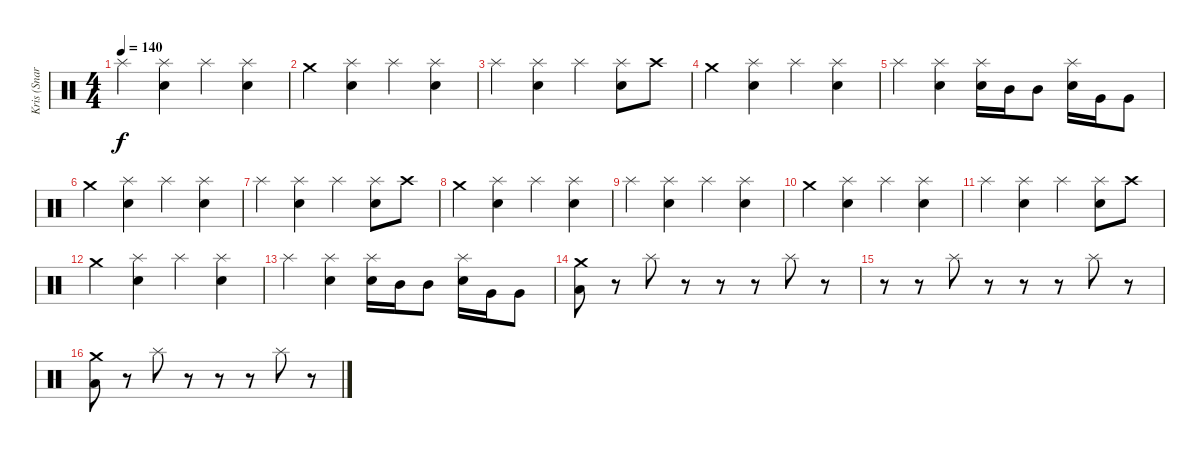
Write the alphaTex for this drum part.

\track ("Kris (Snares & Toms)" "Kris (Snar") {instrument percussion}
\staff {score}
\articulation defaults
\ts (4 4)
\tempo 140
\clef neutral
\ks c "Splash (hit)".4{dy f}
("Splash (hit)" "Electric Snare (hit)").4 "Splash (hit)".4 ("Splash (hit)" "Electric Snare (hit)").4 |
"Crash medium (hit)".4 ("Splash (hit)" "Electric Snare (hit)").4 "Splash (hit)".4 ("Splash (hit)" "Electric Snare (hit)").4 |
"Splash (hit)".4 ("Splash (hit)" "Electric Snare (hit)").4 "Splash (hit)".4 ("Splash (hit)" "Electric Snare (hit)").8 "Crash high (hit)".8 |
"Crash medium (hit)".4 ("Splash (hit)" "Electric Snare (hit)").4 "Splash (hit)".4 ("Splash (hit)" "Electric Snare (hit)").4 |
"Splash (hit)".4 ("Splash (hit)" "Electric Snare (hit)").4 ("Splash (hit)" "Electric Snare (hit)").16 "Mid Tom (hit)".16 "Mid Tom (hit)".8 ("Splash (hit)" "Electric Snare (hit)").16 "Very Low Tom (hit)".16 "Very Low Tom (hit)".8 |
"Crash medium (hit)".4 ("Splash (hit)" "Electric Snare (hit)").4 "Splash (hit)".4 ("Splash (hit)" "Electric Snare (hit)").4 |
"Splash (hit)".4 ("Splash (hit)" "Electric Snare (hit)").4 "Splash (hit)".4 ("Splash (hit)" "Electric Snare (hit)").8 "Crash high (hit)".8 |
"Crash medium (hit)".4 ("Splash (hit)" "Electric Snare (hit)").4 "Splash (hit)".4 ("Splash (hit)" "Electric Snare (hit)").4 |
"Splash (hit)".4 ("Splash (hit)" "Electric Snare (hit)").4 "Splash (hit)".4 ("Splash (hit)" "Electric Snare (hit)").4 |
"Crash medium (hit)".4 ("Splash (hit)" "Electric Snare (hit)").4 "Splash (hit)".4 ("Splash (hit)" "Electric Snare (hit)").4 |
"Splash (hit)".4 ("Splash (hit)" "Electric Snare (hit)").4 "Splash (hit)".4 ("Splash (hit)" "Electric Snare (hit)").8 "Crash high (hit)".8 |
"Crash medium (hit)".4 ("Splash (hit)" "Electric Snare (hit)").4 "Splash (hit)".4 ("Splash (hit)" "Electric Snare (hit)").4 |
"Splash (hit)".4 ("Splash (hit)" "Electric Snare (hit)").4 ("Splash (hit)" "Electric Snare (hit)").16 "Mid Tom (hit)".16 "Mid Tom (hit)".8 ("Splash (hit)" "Electric Snare (hit)").16 "Very Low Tom (hit)".16 "Very Low Tom (hit)".8 |
("Crash medium (hit)" "Low Floor Tom (hit)").8 r.8 "Splash (hit)".8 r.8 r.8 r.8 "Splash (hit)".8 r.8 |
r.8 r.8 "Splash (hit)".8 r.8 r.8 r.8 "Splash (hit)".8 r.8 |
("Crash medium (hit)" "Low Floor Tom (hit)").8 r.8 "Splash (hit)".8 r.8 r.8 r.8 "Splash (hit)".8 r.8
